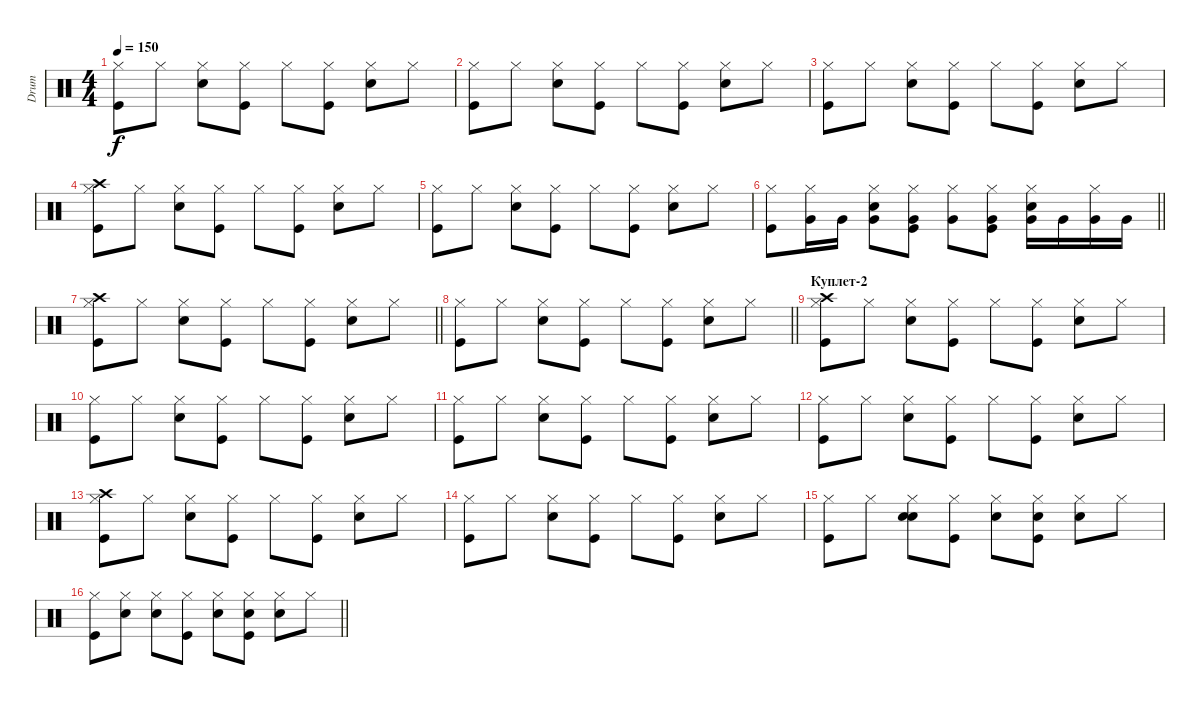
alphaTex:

\track ("Drum" "Drum") {instrument percussion}
\staff {score}
\articulation defaults
\ts (4 4)
\tempo 150
\clef neutral
\ks c
("Kick (hit)" "Hi-Hat (closed)").8{dy f} "Hi-Hat (closed)".8 ("Snare (hit) 2" "Hi-Hat (closed)").8 ("Kick (hit)" "Hi-Hat (closed)").8 "Hi-Hat (closed)".8 ("Kick (hit)" "Hi-Hat (closed)").8 ("Snare (hit) 2" "Hi-Hat (closed)").8 "Hi-Hat (closed)".8 |
("Kick (hit)" "Hi-Hat (closed)").8 "Hi-Hat (closed)".8 ("Snare (hit) 2" "Hi-Hat (closed)").8 ("Kick (hit)" "Hi-Hat (closed)").8 "Hi-Hat (closed)".8 ("Kick (hit)" "Hi-Hat (closed)").8 ("Snare (hit) 2" "Hi-Hat (closed)").8 "Hi-Hat (closed)".8 |
("Kick (hit)" "Hi-Hat (closed)").8 "Hi-Hat (closed)".8 ("Snare (hit) 2" "Hi-Hat (closed)").8 ("Kick (hit)" "Hi-Hat (closed)").8 "Hi-Hat (closed)".8 ("Kick (hit)" "Hi-Hat (closed)").8 ("Snare (hit) 2" "Hi-Hat (closed)").8 "Hi-Hat (closed)".8 |
("Kick (hit)" "Hi-Hat (closed)" "Crash high (hit)").8 "Hi-Hat (closed)".8 ("Snare (hit) 2" "Hi-Hat (closed)").8 ("Kick (hit)" "Hi-Hat (closed)").8 "Hi-Hat (closed)".8 ("Kick (hit)" "Hi-Hat (closed)").8 ("Snare (hit) 2" "Hi-Hat (closed)").8 "Hi-Hat (closed)".8 |
("Kick (hit)" "Hi-Hat (closed)").8 "Hi-Hat (closed)".8 ("Snare (hit) 2" "Hi-Hat (closed)").8 ("Kick (hit)" "Hi-Hat (closed)").8 "Hi-Hat (closed)".8 ("Kick (hit)" "Hi-Hat (closed)").8 ("Snare (hit) 2" "Hi-Hat (closed)").8 "Hi-Hat (closed)".8 |
\barLineRight lightlight
("Kick (hit)" "Hi-Hat (closed)").8 ("Hi-Hat (closed)" "Very Low Tom (hit)").16 "Very Low Tom (hit)".16 ("Snare (hit) 2" "Hi-Hat (closed)" "Very Low Tom (hit)").8 ("Kick (hit)" "Hi-Hat (closed)" "Very Low Tom (hit)").8 ("Hi-Hat (closed)" "Very Low Tom (hit)").8 ("Kick (hit)" "Hi-Hat (closed)" "Very Low Tom (hit)").8 ("Snare (hit) 2" "Hi-Hat (closed)" "Very Low Tom (hit)").16 "Very Low Tom (hit)".16 ("Hi-Hat (closed)" "Very Low Tom (hit)").16 "Very Low Tom (hit)".16 |
\barLineRight lightlight
("Kick (hit)" "Hi-Hat (closed)" "Crash high (hit)").8 "Hi-Hat (closed)".8 ("Snare (hit) 2" "Hi-Hat (closed)").8 ("Kick (hit)" "Hi-Hat (closed)").8 "Hi-Hat (closed)".8 ("Kick (hit)" "Hi-Hat (closed)").8 ("Snare (hit) 2" "Hi-Hat (closed)").8 "Hi-Hat (closed)".8 |
\barLineRight lightlight
("Kick (hit)" "Hi-Hat (closed)").8 "Hi-Hat (closed)".8 ("Snare (hit) 2" "Hi-Hat (closed)").8 ("Kick (hit)" "Hi-Hat (closed)").8 "Hi-Hat (closed)".8 ("Kick (hit)" "Hi-Hat (closed)").8 ("Snare (hit) 2" "Hi-Hat (closed)").8 "Hi-Hat (closed)".8 |
\section ("" "Куплет-2")
("Kick (hit)" "Hi-Hat (closed)" "Crash high (hit)").8 "Hi-Hat (closed)".8 ("Snare (hit) 2" "Hi-Hat (closed)").8 ("Kick (hit)" "Hi-Hat (closed)").8 "Hi-Hat (closed)".8 ("Kick (hit)" "Hi-Hat (closed)").8 ("Snare (hit) 2" "Hi-Hat (closed)").8 "Hi-Hat (closed)".8 |
("Kick (hit)" "Hi-Hat (closed)").8 "Hi-Hat (closed)".8 ("Snare (hit) 2" "Hi-Hat (closed)").8 ("Kick (hit)" "Hi-Hat (closed)").8 "Hi-Hat (closed)".8 ("Kick (hit)" "Hi-Hat (closed)").8 ("Snare (hit) 2" "Hi-Hat (closed)").8 "Hi-Hat (closed)".8 |
("Kick (hit)" "Hi-Hat (closed)").8 "Hi-Hat (closed)".8 ("Snare (hit) 2" "Hi-Hat (closed)").8 ("Kick (hit)" "Hi-Hat (closed)").8 "Hi-Hat (closed)".8 ("Kick (hit)" "Hi-Hat (closed)").8 ("Snare (hit) 2" "Hi-Hat (closed)").8 "Hi-Hat (closed)".8 |
("Kick (hit)" "Hi-Hat (closed)").8 "Hi-Hat (closed)".8 ("Snare (hit) 2" "Hi-Hat (closed)").8 ("Kick (hit)" "Hi-Hat (closed)").8 "Hi-Hat (closed)".8 ("Kick (hit)" "Hi-Hat (closed)").8 ("Snare (hit) 2" "Hi-Hat (closed)").8 "Hi-Hat (closed)".8 |
("Kick (hit)" "Hi-Hat (closed)" "Crash high (hit)").8 "Hi-Hat (closed)".8 ("Snare (hit) 2" "Hi-Hat (closed)").8 ("Kick (hit)" "Hi-Hat (closed)").8 "Hi-Hat (closed)".8 ("Kick (hit)" "Hi-Hat (closed)").8 ("Snare (hit) 2" "Hi-Hat (closed)").8 "Hi-Hat (closed)".8 |
("Kick (hit)" "Hi-Hat (closed)").8 "Hi-Hat (closed)".8 ("Snare (hit) 2" "Hi-Hat (closed)").8 ("Kick (hit)" "Hi-Hat (closed)").8 "Hi-Hat (closed)".8 ("Kick (hit)" "Hi-Hat (closed)").8 ("Snare (hit) 2" "Hi-Hat (closed)").8 "Hi-Hat (closed)".8 |
("Kick (hit)" "Hi-Hat (closed)").8 "Hi-Hat (closed)".8 ("Snare (hit) 2" "Hi-Hat (closed)" "Hand Clap (hit)").8 ("Kick (hit)" "Hi-Hat (closed)").8 ("Hi-Hat (closed)" "Hand Clap (hit)").8 ("Kick (hit)" "Hi-Hat (closed)" "Hand Clap (hit)").8 ("Snare (hit) 2" "Hi-Hat (closed)").8 "Hi-Hat (closed)".8 |
\barLineRight lightlight
("Kick (hit)" "Hi-Hat (closed)").8 ("Hi-Hat (closed)" "Hand Clap (hit)").8 ("Snare (hit) 2" "Hi-Hat (closed)").8 ("Kick (hit)" "Hi-Hat (closed)").8 ("Hi-Hat (closed)" "Hand Clap (hit)").8 ("Kick (hit)" "Hi-Hat (closed)" "Hand Clap (hit)").8 ("Snare (hit) 2" "Hi-Hat (closed)").8 "Hi-Hat (closed)".8
